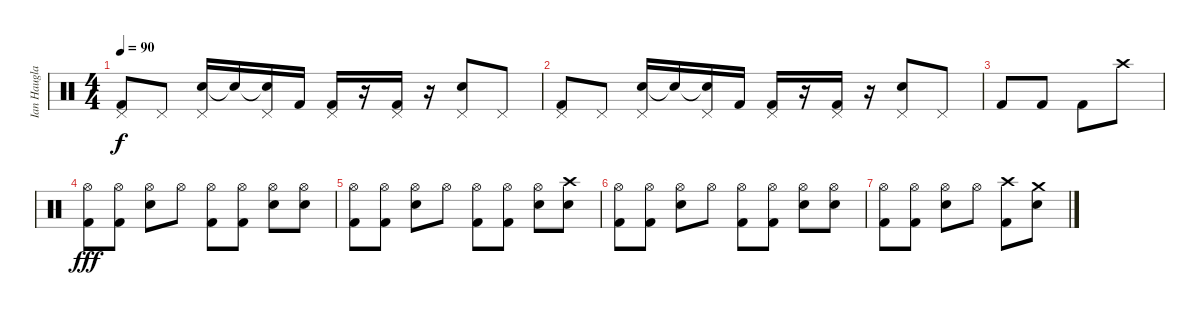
\track ("Ian Haugland" "Ian Haugla") {instrument percussion}
\staff {score}
\articulation defaults
\ts (4 4)
\tempo 90
\clef neutral
\ks c
("Kick (hit) 2" "Pedal Hi-Hat (hit)").8{dy f} "Pedal Hi-Hat (hit)".8 ("Electric Snare (hit)" "Pedal Hi-Hat (hit)").16 "Snare (hit)"{t}.16 ("Snare (hit)"{t} "Pedal Hi-Hat (hit)").16 "Kick (hit) 2".16 ("Kick (hit) 2" "Pedal Hi-Hat (hit)").16 r.16 ("Kick (hit) 2" "Pedal Hi-Hat (hit)").16 r.16 ("Electric Snare (hit)" "Pedal Hi-Hat (hit)").8 "Pedal Hi-Hat (hit)".8 |
("Kick (hit) 2" "Pedal Hi-Hat (hit)").8 "Pedal Hi-Hat (hit)".8 ("Electric Snare (hit)" "Pedal Hi-Hat (hit)").16 "Snare (hit)"{t}.16 ("Snare (hit)"{t} "Pedal Hi-Hat (hit)").16 "Kick (hit) 2".16 ("Kick (hit) 2" "Pedal Hi-Hat (hit)").16 r.16 ("Kick (hit) 2" "Pedal Hi-Hat (hit)").16 r.16 ("Electric Snare (hit)" "Pedal Hi-Hat (hit)").8 "Pedal Hi-Hat (hit)".8 |
"Kick (hit) 2".8 "Kick (hit) 2".8 "Kick (hit) 2".8 "Crash high (hit)".8 |
("Hi-Hat (open)" "Kick (hit) 2").8{dy fff} ("Hi-Hat (open)" "Kick (hit) 2").8 ("Hi-Hat (open)" "Electric Snare (hit)").8 "Hi-Hat (open)".8 ("Hi-Hat (open)" "Kick (hit) 2").8 ("Hi-Hat (open)" "Kick (hit) 2").8 ("Hi-Hat (open)" "Electric Snare (hit)").8 ("Snare (hit) 2" "Hi-Hat (open)").8 |
("Hi-Hat (open)" "Kick (hit) 2").8 ("Hi-Hat (open)" "Kick (hit) 2").8 ("Hi-Hat (open)" "Electric Snare (hit)").8 "Hi-Hat (open)".8 ("Hi-Hat (open)" "Kick (hit) 2").8 ("Hi-Hat (open)" "Kick (hit) 2").8 ("Hi-Hat (open)" "Electric Snare (hit)").8 ("Electric Snare (hit)" "Crash high (hit)").8 |
("Hi-Hat (open)" "Kick (hit) 2").8 ("Hi-Hat (open)" "Kick (hit) 2").8 ("Hi-Hat (open)" "Electric Snare (hit)").8 "Hi-Hat (open)".8 ("Hi-Hat (open)" "Kick (hit) 2").8 ("Hi-Hat (open)" "Kick (hit) 2").8 ("Hi-Hat (open)" "Electric Snare (hit)").8 ("Electric Snare (hit)" "Hi-Hat (open)").8 |
("Hi-Hat (open)" "Kick (hit) 2").8 ("Hi-Hat (open)" "Kick (hit) 2").8 ("Hi-Hat (open)" "Electric Snare (hit)").8 "Hi-Hat (open)".8 ("Crash high (hit)" "Kick (hit) 2").8 ("Crash medium (hit)" "Snare (hit) 2").8
